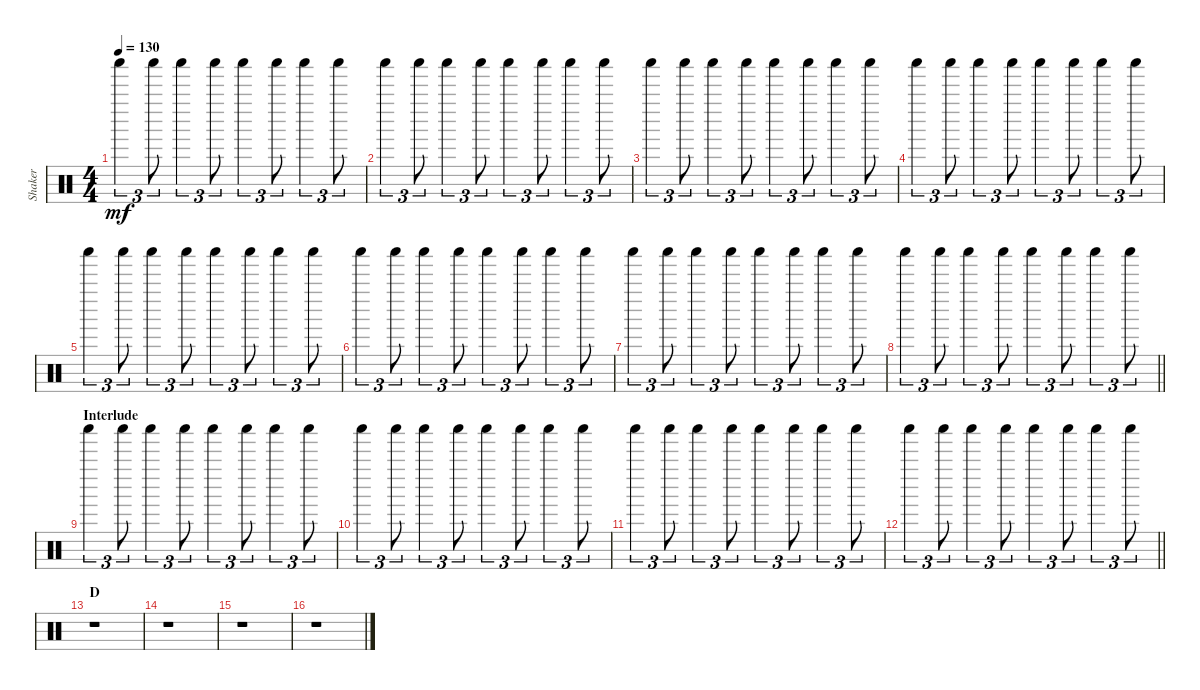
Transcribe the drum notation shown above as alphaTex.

\track ("Shaker" "Shaker") {instrument percussion}
\staff {score}
\articulation defaults
\ts (4 4)
\tempo 130
\clef neutral
\ks c "Shaker (hit)".4{tu (3 2) dy mf} "Shaker (hit)".8{tu (3 2)} "Shaker (hit)".4{tu (3 2)} "Shaker (hit)".8{tu (3 2)} "Shaker (hit)".4{tu (3 2)} "Shaker (hit)".8{tu (3 2)} "Shaker (hit)".4{tu (3 2)} "Shaker (hit)".8{tu (3 2)}
|
"Shaker (hit)".4{tu (3 2)} "Shaker (hit)".8{tu (3 2)} "Shaker (hit)".4{tu (3 2)} "Shaker (hit)".8{tu (3 2)} "Shaker (hit)".4{tu (3 2)} "Shaker (hit)".8{tu (3 2)} "Shaker (hit)".4{tu (3 2)} "Shaker (hit)".8{tu (3 2)} |
"Shaker (hit)".4{tu (3 2)} "Shaker (hit)".8{tu (3 2)} "Shaker (hit)".4{tu (3 2)} "Shaker (hit)".8{tu (3 2)} "Shaker (hit)".4{tu (3 2)} "Shaker (hit)".8{tu (3 2)} "Shaker (hit)".4{tu (3 2)} "Shaker (hit)".8{tu (3 2)} |
"Shaker (hit)".4{tu (3 2)} "Shaker (hit)".8{tu (3 2)} "Shaker (hit)".4{tu (3 2)} "Shaker (hit)".8{tu (3 2)} "Shaker (hit)".4{tu (3 2)} "Shaker (hit)".8{tu (3 2)} "Shaker (hit)".4{tu (3 2)} "Shaker (hit)".8{tu (3 2)} |
"Shaker (hit)".4{tu (3 2)} "Shaker (hit)".8{tu (3 2)} "Shaker (hit)".4{tu (3 2)} "Shaker (hit)".8{tu (3 2)} "Shaker (hit)".4{tu (3 2)} "Shaker (hit)".8{tu (3 2)} "Shaker (hit)".4{tu (3 2)} "Shaker (hit)".8{tu (3 2)} |
"Shaker (hit)".4{tu (3 2)} "Shaker (hit)".8{tu (3 2)} "Shaker (hit)".4{tu (3 2)} "Shaker (hit)".8{tu (3 2)} "Shaker (hit)".4{tu (3 2)} "Shaker (hit)".8{tu (3 2)} "Shaker (hit)".4{tu (3 2)} "Shaker (hit)".8{tu (3 2)} |
"Shaker (hit)".4{tu (3 2)} "Shaker (hit)".8{tu (3 2)} "Shaker (hit)".4{tu (3 2)} "Shaker (hit)".8{tu (3 2)} "Shaker (hit)".4{tu (3 2)} "Shaker (hit)".8{tu (3 2)} "Shaker (hit)".4{tu (3 2)} "Shaker (hit)".8{tu (3 2)} |
\barLineRight lightlight "Shaker (hit)".4{tu (3 2)} "Shaker (hit)".8{tu (3 2)} "Shaker (hit)".4{tu (3 2)} "Shaker (hit)".8{tu (3 2)} "Shaker (hit)".4{tu (3 2)} "Shaker (hit)".8{tu (3 2)} "Shaker (hit)".4{tu (3 2)} "Shaker (hit)".8{tu (3 2)}
|
\section ("" "Interlude")
"Shaker (hit)".4{tu (3 2)} "Shaker (hit)".8{tu (3 2)} "Shaker (hit)".4{tu (3 2)} "Shaker (hit)".8{tu (3 2)} "Shaker (hit)".4{tu (3 2)} "Shaker (hit)".8{tu (3 2)} "Shaker (hit)".4{tu (3 2)} "Shaker (hit)".8{tu (3 2)} |
"Shaker (hit)".4{tu (3 2)} "Shaker (hit)".8{tu (3 2)} "Shaker (hit)".4{tu (3 2)} "Shaker (hit)".8{tu (3 2)} "Shaker (hit)".4{tu (3 2)} "Shaker (hit)".8{tu (3 2)} "Shaker (hit)".4{tu (3 2)} "Shaker (hit)".8{tu (3 2)} |
"Shaker (hit)".4{tu (3 2)} "Shaker (hit)".8{tu (3 2)} "Shaker (hit)".4{tu (3 2)} "Shaker (hit)".8{tu (3 2)} "Shaker (hit)".4{tu (3 2)} "Shaker (hit)".8{tu (3 2)} "Shaker (hit)".4{tu (3 2)} "Shaker (hit)".8{tu (3 2)} |
\barLineRight lightlight "Shaker (hit)".4{tu (3 2)} "Shaker (hit)".8{tu (3 2)} "Shaker (hit)".4{tu (3 2)} "Shaker (hit)".8{tu (3 2)} "Shaker (hit)".4{tu (3 2)} "Shaker (hit)".8{tu (3 2)} "Shaker (hit)".4{tu (3 2)} "Shaker (hit)".8{tu (3 2)}
|
\section ("" "D")
r.1 |
r.1 |
r.1 |
r.1
